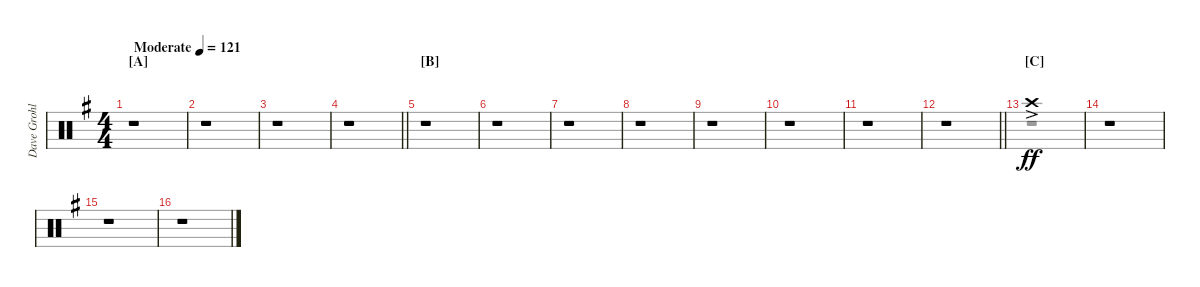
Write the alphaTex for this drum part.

\track ("Dave Grohl" "Dave Grohl") {instrument percussion}
\staff {score}
\articulation defaults
\voice
\ts (4 4)
\section ("" "[A]")
\tempo (121 "Moderate")
\clef neutral
\ks eminor
r.1{dy ff} |
r.1 |
r.1 |
\barLineRight lightlight
r.1 |
\section ("" "[B]")
r.1 |
r.1 |
r.1 |
r.1 |
r.1 |
r.1 |
r.1 |
\barLineRight lightlight
r.1 |
\section ("" "[C]")
"Crash high (hit)"{ac}.1 |
r.1 |
r.1 |
r.1
\voice
\clef neutral
\ottava regular
\simile none
\ks eminor
r.1{dy f} |
r.1 |
r.1 |
\barLineRight lightlight
r.1 |
r.1 |
r.1 |
r.1 |
r.1 |
r.1 |
r.1 |
r.1 |
\barLineRight lightlight
r.1 |
r.1 |
r.1 |
r.1 |
r.1
